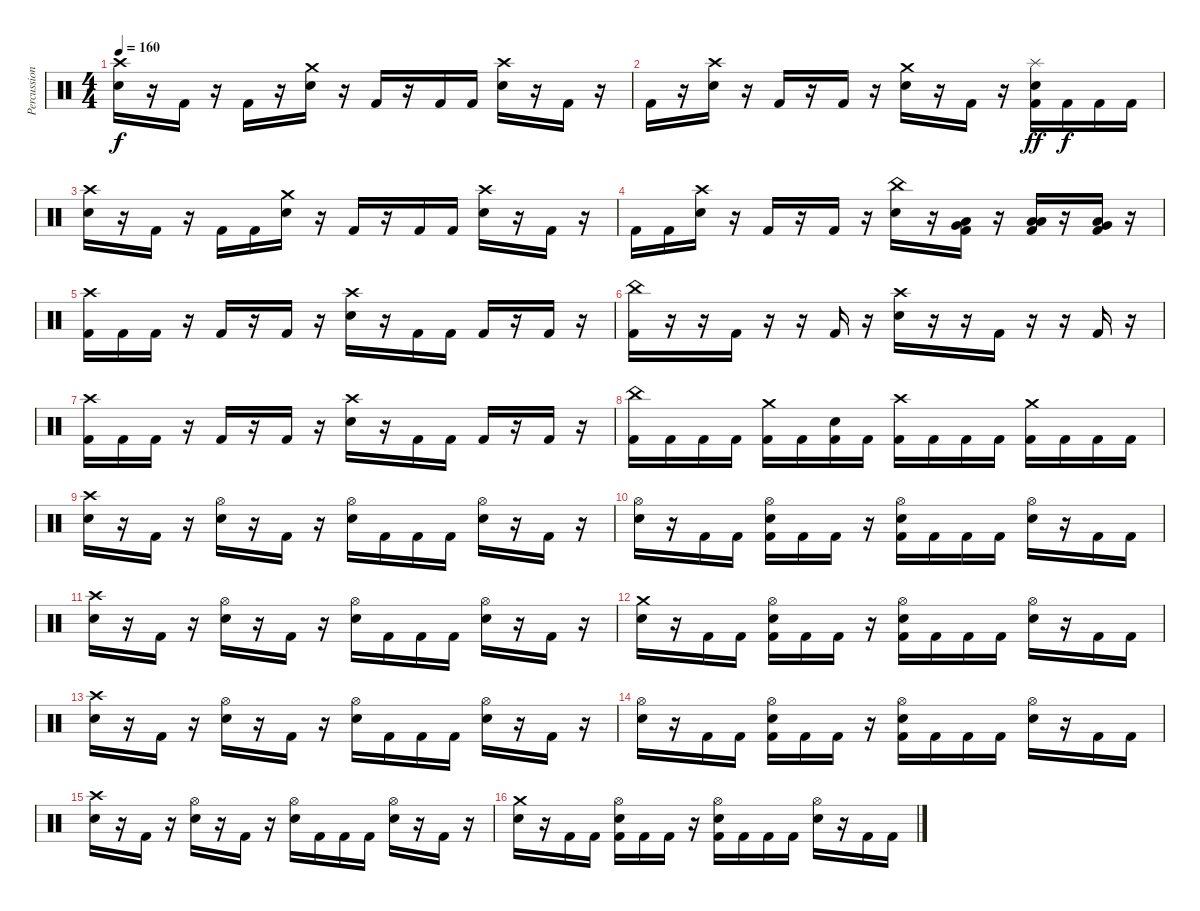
\track ("Percussion" "Percussion") {instrument percussion}
\staff {score}
\articulation defaults
\ts (4 4)
\tempo 160
\clef neutral
\ks c
("Crash high (hit)" "Snare (hit) 2").16{dy f} r.16 "Kick (hit) 2".16 r.16 "Kick (hit) 2".16 r.16 ("Crash medium (hit)" "Snare (hit) 2").16 r.16 "Kick (hit) 2".16 r.16 "Kick (hit) 2".16 "Kick (hit) 2".16 ("Crash high (hit)" "Snare (hit) 2").16 r.16 "Kick (hit) 2".16 r.16 |
"Kick (hit) 2".16 r.16 ("Crash high (hit)" "Snare (hit) 2").16 r.16 "Kick (hit) 2".16 r.16 "Kick (hit) 2".16 r.16 ("Crash medium (hit)" "Snare (hit) 2").16 r.16 "Kick (hit) 2".16 r.16 ("Splash (hit)" "Snare (hit) 2" "Kick (hit) 2").16{dy ff} "Kick (hit) 2".16{dy f} "Kick (hit) 2".16 "Kick (hit) 2".16 |
("Crash high (hit)" "Snare (hit) 2").16 r.16 "Kick (hit) 2".16 r.16 "Kick (hit) 2".16 "Kick (hit) 2".16 ("Crash medium (hit)" "Snare (hit) 2").16 r.16 "Kick (hit) 2".16 r.16 "Kick (hit) 2".16 "Kick (hit) 2".16 ("Crash high (hit)" "Snare (hit) 2").16 r.16 "Kick (hit) 2".16 r.16 |
"Kick (hit) 2".16 "Kick (hit) 2".16 ("Crash high (hit)" "Snare (hit) 2").16 r.16 "Kick (hit) 2".16 r.16 "Kick (hit) 2".16 r.16 ("China (hit)" "Snare (hit) 2").16 r.16 ("Very Low Tom (hit)" "Low Floor Tom (hit)" "Kick (hit) 2").16 r.16 ("Low Tom (hit)" "Low Floor Tom (hit)" "Kick (hit) 2").16 r.16 ("Very Low Tom (hit)" "Low Floor Tom (hit)" "Kick (hit) 2").16 r.16 |
("Crash high (hit)" "Kick (hit) 2").16 "Kick (hit) 2".16 "Kick (hit) 2".16 r.16 "Kick (hit) 2".16 r.16 "Kick (hit) 2".16 r.16 ("Crash high (hit)" "Snare (hit) 2").16 r.16 "Kick (hit) 2".16 "Kick (hit) 2".16 "Kick (hit) 2".16 r.16 "Kick (hit) 2".16 r.16 |
("China (hit)" "Kick (hit) 2").16 r.16 r.16 "Kick (hit) 2".16 r.16 r.16 "Kick (hit) 2".16 r.16 ("Crash high (hit)" "Snare (hit) 2").16 r.16 r.16 "Kick (hit) 2".16 r.16 r.16 "Kick (hit) 2".16 r.16 |
("Crash high (hit)" "Kick (hit) 2").16 "Kick (hit) 2".16 "Kick (hit) 2".16 r.16 "Kick (hit) 2".16 r.16 "Kick (hit) 2".16 r.16 ("Crash high (hit)" "Snare (hit) 2").16 r.16 "Kick (hit) 2".16 "Kick (hit) 2".16 "Kick (hit) 2".16 r.16 "Kick (hit) 2".16 r.16 |
("China (hit)" "Kick (hit) 2").16 "Kick (hit) 2".16 "Kick (hit) 2".16 "Kick (hit) 2".16 ("Crash medium (hit)" "Kick (hit) 2").16 "Kick (hit) 2".16 ("Snare (hit) 2" "Kick (hit) 2").16 "Kick (hit) 2".16 ("Crash high (hit)" "Kick (hit) 2").16 "Kick (hit) 2".16 "Kick (hit) 2".16 "Kick (hit) 2".16 ("Crash medium (hit)" "Kick (hit) 2").16 "Kick (hit) 2".16 "Kick (hit) 2".16 "Kick (hit) 2".16 |
("Crash high (hit)" "Snare (hit) 2").16 r.16 "Kick (hit) 2".16 r.16 ("Hi-Hat (open)" "Snare (hit) 2").16 r.16 "Kick (hit) 2".16 r.16 ("Hi-Hat (open)" "Snare (hit) 2").16 "Kick (hit) 2".16 "Kick (hit) 2".16 "Kick (hit) 2".16 ("Hi-Hat (open)" "Snare (hit) 2").16 r.16 "Kick (hit) 2".16 r.16 |
("Hi-Hat (open)" "Snare (hit) 2").16 r.16 "Kick (hit) 2".16 "Kick (hit) 2".16 ("Hi-Hat (open)" "Snare (hit) 2" "Kick (hit) 2").16 "Kick (hit) 2".16 "Kick (hit) 2".16 r.16 ("Hi-Hat (open)" "Snare (hit) 2" "Kick (hit) 2").16 "Kick (hit) 2".16 "Kick (hit) 2".16 "Kick (hit) 2".16 ("Hi-Hat (open)" "Snare (hit) 2").16 r.16 "Kick (hit) 2".16 "Kick (hit) 2".16 |
("Crash high (hit)" "Snare (hit) 2").16 r.16 "Kick (hit) 2".16 r.16 ("Hi-Hat (open)" "Snare (hit) 2").16 r.16 "Kick (hit) 2".16 r.16 ("Hi-Hat (open)" "Snare (hit) 2").16 "Kick (hit) 2".16 "Kick (hit) 2".16 "Kick (hit) 2".16 ("Hi-Hat (open)" "Snare (hit) 2").16 r.16 "Kick (hit) 2".16 r.16 |
("Crash medium (hit)" "Snare (hit) 2").16 r.16 "Kick (hit) 2".16 "Kick (hit) 2".16 ("Hi-Hat (open)" "Snare (hit) 2" "Kick (hit) 2").16 "Kick (hit) 2".16 "Kick (hit) 2".16 r.16 ("Hi-Hat (open)" "Snare (hit) 2" "Kick (hit) 2").16 "Kick (hit) 2".16 "Kick (hit) 2".16 "Kick (hit) 2".16 ("Hi-Hat (open)" "Snare (hit) 2").16 r.16 "Kick (hit) 2".16 "Kick (hit) 2".16 |
("Crash high (hit)" "Snare (hit) 2").16 r.16 "Kick (hit) 2".16 r.16 ("Hi-Hat (open)" "Snare (hit) 2").16 r.16 "Kick (hit) 2".16 r.16 ("Hi-Hat (open)" "Snare (hit) 2").16 "Kick (hit) 2".16 "Kick (hit) 2".16 "Kick (hit) 2".16 ("Hi-Hat (open)" "Snare (hit) 2").16 r.16 "Kick (hit) 2".16 r.16 |
("Hi-Hat (open)" "Snare (hit) 2").16 r.16 "Kick (hit) 2".16 "Kick (hit) 2".16 ("Hi-Hat (open)" "Snare (hit) 2" "Kick (hit) 2").16 "Kick (hit) 2".16 "Kick (hit) 2".16 r.16 ("Hi-Hat (open)" "Snare (hit) 2" "Kick (hit) 2").16 "Kick (hit) 2".16 "Kick (hit) 2".16 "Kick (hit) 2".16 ("Hi-Hat (open)" "Snare (hit) 2").16 r.16 "Kick (hit) 2".16 "Kick (hit) 2".16 |
("Crash high (hit)" "Snare (hit) 2").16 r.16 "Kick (hit) 2".16 r.16 ("Hi-Hat (open)" "Snare (hit) 2").16 r.16 "Kick (hit) 2".16 r.16 ("Hi-Hat (open)" "Snare (hit) 2").16 "Kick (hit) 2".16 "Kick (hit) 2".16 "Kick (hit) 2".16 ("Hi-Hat (open)" "Snare (hit) 2").16 r.16 "Kick (hit) 2".16 r.16 |
("Crash medium (hit)" "Snare (hit) 2").16 r.16 "Kick (hit) 2".16 "Kick (hit) 2".16 ("Hi-Hat (open)" "Snare (hit) 2" "Kick (hit) 2").16 "Kick (hit) 2".16 "Kick (hit) 2".16 r.16 ("Hi-Hat (open)" "Snare (hit) 2" "Kick (hit) 2").16 "Kick (hit) 2".16 "Kick (hit) 2".16 "Kick (hit) 2".16 ("Hi-Hat (open)" "Snare (hit) 2").16 r.16 "Kick (hit) 2".16 "Kick (hit) 2".16
